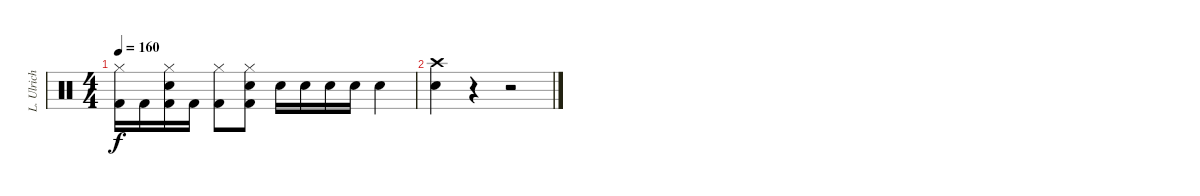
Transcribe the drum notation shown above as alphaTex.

\track ("L. Ulrich - Drums" "L. Ulrich ") {instrument percussion}
\staff {score}
\articulation defaults
\ts (4 4)
\tempo 160
\clef neutral
\ks c
("Hi-Hat (closed)" "Kick (hit) 2").16{dy f} "Kick (hit) 2".16 ("Hi-Hat (closed)" "Snare (hit) 2" "Kick (hit) 2").16 "Kick (hit) 2".16 ("Hi-Hat (closed)" "Kick (hit) 2").8 ("Hi-Hat (closed)" "Snare (hit) 2" "Kick (hit) 2").8 "Snare (hit) 2".16 "Snare (hit) 2".16 "Snare (hit) 2".16 "Snare (hit) 2".16 "Snare (hit) 2".4 |
("Crash high (hit)" "Snare (hit) 2").4 r.4 r.2
